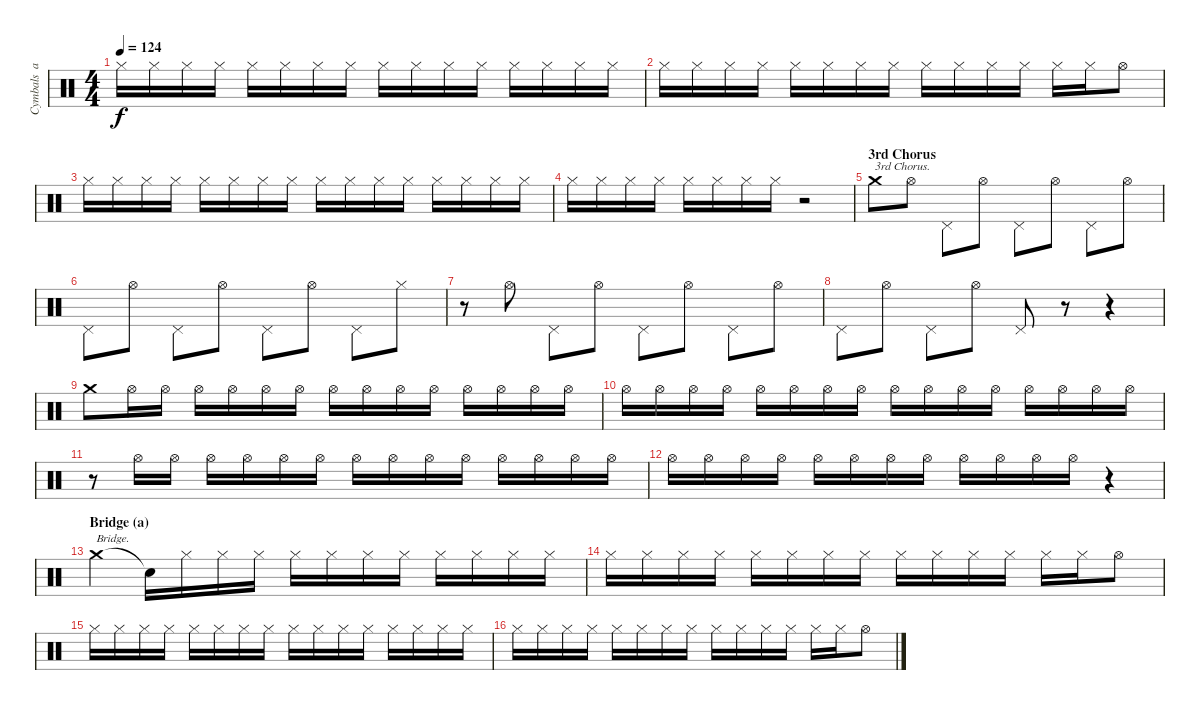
\track ("Cymbals  and Hi-hat" "Cymbals  a") {instrument percussion}
\staff {score}
\articulation defaults
\ts (4 4)
\tempo 124
\clef neutral
\ks c "Hi-Hat (closed)".16{dy f} "Hi-Hat (closed)".16 "Hi-Hat (closed)".16 "Hi-Hat (closed)".16 "Hi-Hat (closed)".16 "Hi-Hat (closed)".16 "Hi-Hat (closed)".16 "Hi-Hat (closed)".16 "Hi-Hat (closed)".16 "Hi-Hat (closed)".16 "Hi-Hat (closed)".16 "Hi-Hat (closed)".16 "Hi-Hat (closed)".16 "Hi-Hat (closed)".16 "Hi-Hat (closed)".16 "Hi-Hat (closed)".16
|
"Hi-Hat (closed)".16 "Hi-Hat (closed)".16 "Hi-Hat (closed)".16 "Hi-Hat (closed)".16 "Hi-Hat (closed)".16 "Hi-Hat (closed)".16 "Hi-Hat (closed)".16 "Hi-Hat (closed)".16 "Hi-Hat (closed)".16 "Hi-Hat (closed)".16 "Hi-Hat (closed)".16 "Hi-Hat (closed)".16 "Hi-Hat (closed)".16 "Hi-Hat (closed)".16 "Hi-Hat (open)".8 |
"Hi-Hat (closed)".16 "Hi-Hat (closed)".16 "Hi-Hat (closed)".16 "Hi-Hat (closed)".16 "Hi-Hat (closed)".16 "Hi-Hat (closed)".16 "Hi-Hat (closed)".16 "Hi-Hat (closed)".16 "Hi-Hat (closed)".16 "Hi-Hat (closed)".16 "Hi-Hat (closed)".16 "Hi-Hat (closed)".16 "Hi-Hat (closed)".16 "Hi-Hat (closed)".16 "Hi-Hat (closed)".16 "Hi-Hat (closed)".16 |
"Hi-Hat (closed)".16 "Hi-Hat (closed)".16 "Hi-Hat (closed)".16 "Hi-Hat (closed)".16 "Hi-Hat (closed)".16 "Hi-Hat (closed)".16 "Hi-Hat (closed)".16 "Hi-Hat (closed)".16 r.2 |
\section ("" "3rd Chorus")
"Crash medium (hit)".8{txt "3rd Chorus."} "Hi-Hat (open)".8 "Pedal Hi-Hat (hit)".8 "Hi-Hat (open)".8 "Pedal Hi-Hat (hit)".8 "Hi-Hat (open)".8 "Pedal Hi-Hat (hit)".8 "Hi-Hat (open)".8 |
"Pedal Hi-Hat (hit)".8 "Hi-Hat (open)".8 "Pedal Hi-Hat (hit)".8 "Hi-Hat (open)".8 "Pedal Hi-Hat (hit)".8 "Hi-Hat (open)".8 "Pedal Hi-Hat (hit)".8 "Hi-Hat (closed)".8 |
r.8 "Hi-Hat (open)".8 "Pedal Hi-Hat (hit)".8 "Hi-Hat (open)".8 "Pedal Hi-Hat (hit)".8 "Hi-Hat (open)".8 "Pedal Hi-Hat (hit)".8 "Hi-Hat (open)".8 |
"Pedal Hi-Hat (hit)".8 "Hi-Hat (open)".8 "Pedal Hi-Hat (hit)".8 "Hi-Hat (open)".8 "Pedal Hi-Hat (hit)".8 r.8 r.4 |
"Crash medium (hit)".8 "Hi-Hat (open)".16 "Hi-Hat (open)".16 "Hi-Hat (open)".16 "Hi-Hat (open)".16 "Hi-Hat (open)".16 "Hi-Hat (open)".16 "Hi-Hat (open)".16 "Hi-Hat (open)".16 "Hi-Hat (open)".16 "Hi-Hat (open)".16 "Hi-Hat (open)".16 "Hi-Hat (open)".16 "Hi-Hat (open)".16 "Hi-Hat (open)".16 |
"Hi-Hat (open)".16 "Hi-Hat (open)".16 "Hi-Hat (open)".16 "Hi-Hat (open)".16 "Hi-Hat (open)".16 "Hi-Hat (open)".16 "Hi-Hat (open)".16 "Hi-Hat (open)".16 "Hi-Hat (open)".16 "Hi-Hat (open)".16 "Hi-Hat (open)".16 "Hi-Hat (open)".16 "Hi-Hat (open)".16 "Hi-Hat (open)".16 "Hi-Hat (open)".16 "Hi-Hat (open)".16 |
r.8 "Hi-Hat (open)".16 "Hi-Hat (open)".16 "Hi-Hat (open)".16 "Hi-Hat (open)".16 "Hi-Hat (open)".16 "Hi-Hat (open)".16 "Hi-Hat (open)".16 "Hi-Hat (open)".16 "Hi-Hat (open)".16 "Hi-Hat (open)".16 "Hi-Hat (open)".16 "Hi-Hat (open)".16 "Hi-Hat (open)".16 "Hi-Hat (open)".16 |
"Hi-Hat (open)".16 "Hi-Hat (open)".16 "Hi-Hat (open)".16 "Hi-Hat (open)".16 "Hi-Hat (open)".16 "Hi-Hat (open)".16 "Hi-Hat (open)".16 "Hi-Hat (open)".16 "Hi-Hat (open)".16 "Hi-Hat (open)".16 "Hi-Hat (open)".16 "Hi-Hat (open)".16 r.4 |
\section ("" "Bridge (a)")
"Crash medium (hit)".4{txt "Bridge."} "Snare (hit)"{t}.16 "Hi-Hat (closed)".16 "Hi-Hat (closed)".16 "Hi-Hat (closed)".16 "Hi-Hat (closed)".16 "Hi-Hat (closed)".16 "Hi-Hat (closed)".16 "Hi-Hat (closed)".16 "Hi-Hat (closed)".16 "Hi-Hat (closed)".16 "Hi-Hat (closed)".16 "Hi-Hat (closed)".16 |
"Hi-Hat (closed)".16 "Hi-Hat (closed)".16 "Hi-Hat (closed)".16 "Hi-Hat (closed)".16 "Hi-Hat (closed)".16 "Hi-Hat (closed)".16 "Hi-Hat (closed)".16 "Hi-Hat (closed)".16 "Hi-Hat (closed)".16 "Hi-Hat (closed)".16 "Hi-Hat (closed)".16 "Hi-Hat (closed)".16 "Hi-Hat (closed)".16 "Hi-Hat (closed)".16 "Hi-Hat (open)".8 |
"Hi-Hat (closed)".16 "Hi-Hat (closed)".16 "Hi-Hat (closed)".16 "Hi-Hat (closed)".16 "Hi-Hat (closed)".16 "Hi-Hat (closed)".16 "Hi-Hat (closed)".16 "Hi-Hat (closed)".16 "Hi-Hat (closed)".16 "Hi-Hat (closed)".16 "Hi-Hat (closed)".16 "Hi-Hat (closed)".16 "Hi-Hat (closed)".16 "Hi-Hat (closed)".16 "Hi-Hat (closed)".16 "Hi-Hat (closed)".16 |
"Hi-Hat (closed)".16 "Hi-Hat (closed)".16 "Hi-Hat (closed)".16 "Hi-Hat (closed)".16 "Hi-Hat (closed)".16 "Hi-Hat (closed)".16 "Hi-Hat (closed)".16 "Hi-Hat (closed)".16 "Hi-Hat (closed)".16 "Hi-Hat (closed)".16 "Hi-Hat (closed)".16 "Hi-Hat (closed)".16 "Hi-Hat (closed)".16 "Hi-Hat (closed)".16 "Hi-Hat (open)".8
